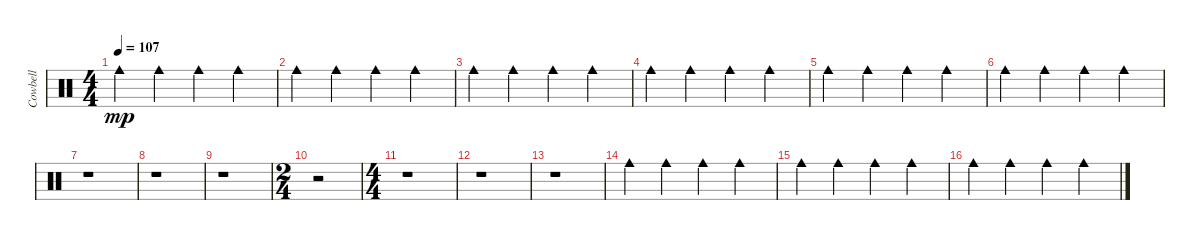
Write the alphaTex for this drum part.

\track ("Cowbell" "Cowbell") {instrument percussion}
\staff {score}
\articulation defaults
\ts (4 4)
\tempo 107
\clef neutral
\ks c "Cowbell medium (hit)".4{dy mp} "Cowbell medium (hit)".4 "Cowbell medium (hit)".4 "Cowbell medium (hit)".4
|
"Cowbell medium (hit)".4 "Cowbell medium (hit)".4 "Cowbell medium (hit)".4 "Cowbell medium (hit)".4 |
"Cowbell medium (hit)".4 "Cowbell medium (hit)".4 "Cowbell medium (hit)".4 "Cowbell medium (hit)".4 |
"Cowbell medium (hit)".4 "Cowbell medium (hit)".4 "Cowbell medium (hit)".4 "Cowbell medium (hit)".4 |
"Cowbell medium (hit)".4 "Cowbell medium (hit)".4 "Cowbell medium (hit)".4 "Cowbell medium (hit)".4 |
"Cowbell medium (hit)".4 "Cowbell medium (hit)".4 "Cowbell medium (hit)".4 "Cowbell medium (hit)".4 |
r.1 |
r.1 |
r.1 |
\ts (2 4)
r.2 |
\ts (4 4)
r.1 |
r.1 |
r.1 |
"Cowbell medium (hit)".4 "Cowbell medium (hit)".4 "Cowbell medium (hit)".4 "Cowbell medium (hit)".4 |
"Cowbell medium (hit)".4 "Cowbell medium (hit)".4 "Cowbell medium (hit)".4 "Cowbell medium (hit)".4 |
"Cowbell medium (hit)".4 "Cowbell medium (hit)".4 "Cowbell medium (hit)".4 "Cowbell medium (hit)".4
